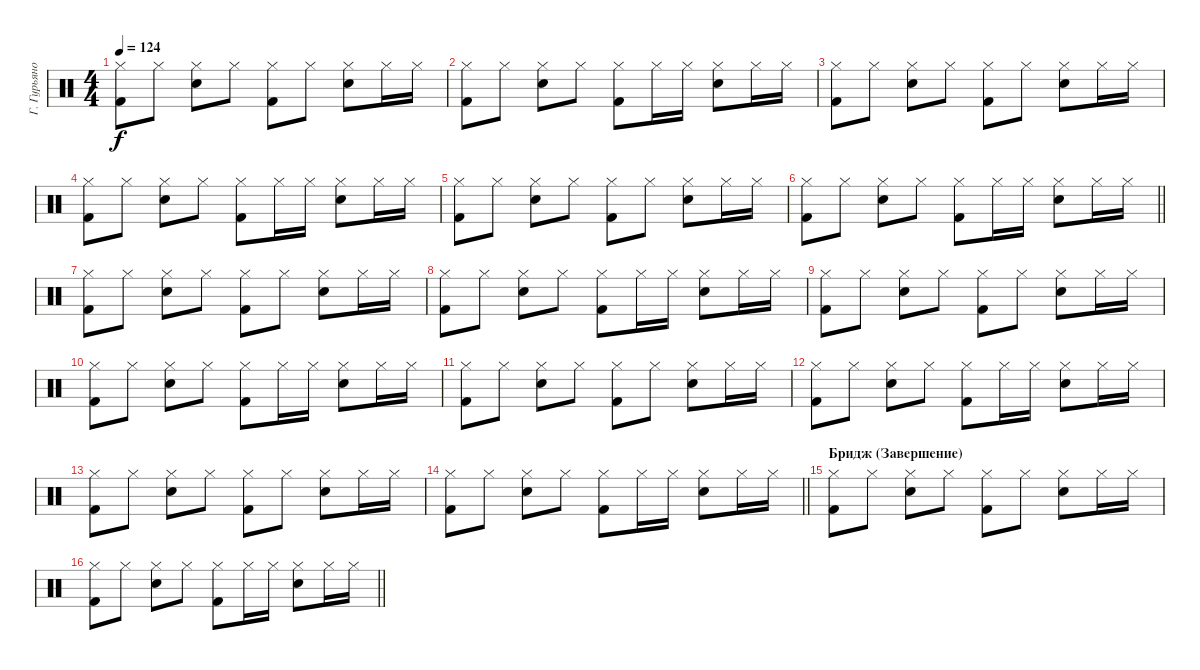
\track ("Г. Гурьянов" "Г. Гурьяно") {instrument percussion}
\staff
\articulation defaults
\ts (4 4)
\tempo 124
\clef neutral
\ks c
("Hi-Hat (closed)" "Kick (hit) 2").8{dy f} "Hi-Hat (closed)".8 ("Hi-Hat (closed)" "Snare (hit) 2").8 "Hi-Hat (closed)".8 ("Hi-Hat (closed)" "Kick (hit) 2").8 "Hi-Hat (closed)".8 ("Hi-Hat (closed)" "Snare (hit) 2").8 "Hi-Hat (closed)".16 "Hi-Hat (closed)".16 |
("Hi-Hat (closed)" "Kick (hit) 2").8 "Hi-Hat (closed)".8 ("Hi-Hat (closed)" "Snare (hit) 2").8 "Hi-Hat (closed)".8 ("Hi-Hat (closed)" "Kick (hit) 2").8 "Hi-Hat (closed)".16 "Hi-Hat (closed)".16 ("Hi-Hat (closed)" "Snare (hit) 2").8 "Hi-Hat (closed)".16 "Hi-Hat (closed)".16 |
("Hi-Hat (closed)" "Kick (hit) 2").8 "Hi-Hat (closed)".8 ("Hi-Hat (closed)" "Snare (hit) 2").8 "Hi-Hat (closed)".8 ("Hi-Hat (closed)" "Kick (hit) 2").8 "Hi-Hat (closed)".8 ("Hi-Hat (closed)" "Snare (hit) 2").8 "Hi-Hat (closed)".16 "Hi-Hat (closed)".16 |
("Hi-Hat (closed)" "Kick (hit) 2").8 "Hi-Hat (closed)".8 ("Hi-Hat (closed)" "Snare (hit) 2").8 "Hi-Hat (closed)".8 ("Hi-Hat (closed)" "Kick (hit) 2").8 "Hi-Hat (closed)".16 "Hi-Hat (closed)".16 ("Hi-Hat (closed)" "Snare (hit) 2").8 "Hi-Hat (closed)".16 "Hi-Hat (closed)".16 |
("Hi-Hat (closed)" "Kick (hit) 2").8 "Hi-Hat (closed)".8 ("Hi-Hat (closed)" "Snare (hit) 2").8 "Hi-Hat (closed)".8 ("Hi-Hat (closed)" "Kick (hit) 2").8 "Hi-Hat (closed)".8 ("Hi-Hat (closed)" "Snare (hit) 2").8 "Hi-Hat (closed)".16 "Hi-Hat (closed)".16 |
\barLineRight lightlight
("Hi-Hat (closed)" "Kick (hit) 2").8 "Hi-Hat (closed)".8 ("Hi-Hat (closed)" "Snare (hit) 2").8 "Hi-Hat (closed)".8 ("Hi-Hat (closed)" "Kick (hit) 2").8 "Hi-Hat (closed)".16 "Hi-Hat (closed)".16 ("Hi-Hat (closed)" "Snare (hit) 2").8 "Hi-Hat (closed)".16 "Hi-Hat (closed)".16 |
("Hi-Hat (closed)" "Kick (hit) 2").8 "Hi-Hat (closed)".8 ("Hi-Hat (closed)" "Snare (hit) 2").8 "Hi-Hat (closed)".8 ("Hi-Hat (closed)" "Kick (hit) 2").8 "Hi-Hat (closed)".8 ("Hi-Hat (closed)" "Snare (hit) 2").8 "Hi-Hat (closed)".16 "Hi-Hat (closed)".16 |
("Hi-Hat (closed)" "Kick (hit) 2").8 "Hi-Hat (closed)".8 ("Hi-Hat (closed)" "Snare (hit) 2").8 "Hi-Hat (closed)".8 ("Hi-Hat (closed)" "Kick (hit) 2").8 "Hi-Hat (closed)".16 "Hi-Hat (closed)".16 ("Hi-Hat (closed)" "Snare (hit) 2").8 "Hi-Hat (closed)".16 "Hi-Hat (closed)".16 |
("Hi-Hat (closed)" "Kick (hit) 2").8 "Hi-Hat (closed)".8 ("Hi-Hat (closed)" "Snare (hit) 2").8 "Hi-Hat (closed)".8 ("Hi-Hat (closed)" "Kick (hit) 2").8 "Hi-Hat (closed)".8 ("Hi-Hat (closed)" "Snare (hit) 2").8 "Hi-Hat (closed)".16 "Hi-Hat (closed)".16 |
("Hi-Hat (closed)" "Kick (hit) 2").8 "Hi-Hat (closed)".8 ("Hi-Hat (closed)" "Snare (hit) 2").8 "Hi-Hat (closed)".8 ("Hi-Hat (closed)" "Kick (hit) 2").8 "Hi-Hat (closed)".16 "Hi-Hat (closed)".16 ("Hi-Hat (closed)" "Snare (hit) 2").8 "Hi-Hat (closed)".16 "Hi-Hat (closed)".16 |
("Hi-Hat (closed)" "Kick (hit) 2").8 "Hi-Hat (closed)".8 ("Hi-Hat (closed)" "Snare (hit) 2").8 "Hi-Hat (closed)".8 ("Hi-Hat (closed)" "Kick (hit) 2").8 "Hi-Hat (closed)".8 ("Hi-Hat (closed)" "Snare (hit) 2").8 "Hi-Hat (closed)".16 "Hi-Hat (closed)".16 |
("Hi-Hat (closed)" "Kick (hit) 2").8 "Hi-Hat (closed)".8 ("Hi-Hat (closed)" "Snare (hit) 2").8 "Hi-Hat (closed)".8 ("Hi-Hat (closed)" "Kick (hit) 2").8 "Hi-Hat (closed)".16 "Hi-Hat (closed)".16 ("Hi-Hat (closed)" "Snare (hit) 2").8 "Hi-Hat (closed)".16 "Hi-Hat (closed)".16 |
("Hi-Hat (closed)" "Kick (hit) 2").8 "Hi-Hat (closed)".8 ("Hi-Hat (closed)" "Snare (hit) 2").8 "Hi-Hat (closed)".8 ("Hi-Hat (closed)" "Kick (hit) 2").8 "Hi-Hat (closed)".8 ("Hi-Hat (closed)" "Snare (hit) 2").8 "Hi-Hat (closed)".16 "Hi-Hat (closed)".16 |
\barLineRight lightlight
("Hi-Hat (closed)" "Kick (hit) 2").8 "Hi-Hat (closed)".8 ("Hi-Hat (closed)" "Snare (hit) 2").8 "Hi-Hat (closed)".8 ("Hi-Hat (closed)" "Kick (hit) 2").8 "Hi-Hat (closed)".16 "Hi-Hat (closed)".16 ("Hi-Hat (closed)" "Snare (hit) 2").8 "Hi-Hat (closed)".16 "Hi-Hat (closed)".16 |
\section ("" "Бридж (Завершение)")
("Hi-Hat (closed)" "Kick (hit) 2").8 "Hi-Hat (closed)".8 ("Hi-Hat (closed)" "Snare (hit) 2").8 "Hi-Hat (closed)".8 ("Hi-Hat (closed)" "Kick (hit) 2").8 "Hi-Hat (closed)".8 ("Hi-Hat (closed)" "Snare (hit) 2").8 "Hi-Hat (closed)".16 "Hi-Hat (closed)".16 |
\barLineRight lightlight
("Hi-Hat (closed)" "Kick (hit) 2").8 "Hi-Hat (closed)".8 ("Hi-Hat (closed)" "Snare (hit) 2").8 "Hi-Hat (closed)".8 ("Hi-Hat (closed)" "Kick (hit) 2").8 "Hi-Hat (closed)".16 "Hi-Hat (closed)".16 ("Hi-Hat (closed)" "Snare (hit) 2").8 "Hi-Hat (closed)".16 "Hi-Hat (closed)".16
